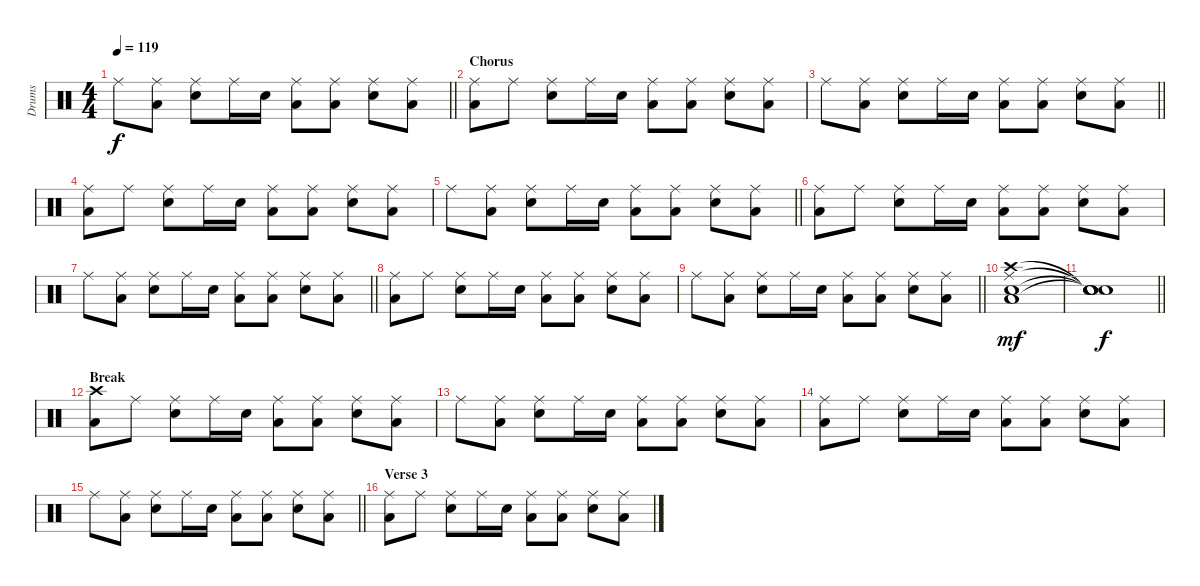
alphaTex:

\track ("Drums" "Drums") {instrument percussion}
\staff {score}
\articulation defaults
\ts (4 4)
\tempo 119
\clef neutral
\barLineRight lightlight
\ks c "Ride (middle)".8{dy f}
("Ride (middle)" "Low Floor Tom (hit)").8 ("Ride (middle)" "Electric Snare (hit)").8 "Ride (middle)".16 "Electric Snare (hit)".16 ("Ride (middle)" "Low Floor Tom (hit)").8 ("Ride (middle)" "Low Floor Tom (hit)").8 ("Ride (middle)" "Electric Snare (hit)").8 ("Ride (middle)" "Low Floor Tom (hit)").8 |
\section ("" "Chorus")
("Ride (middle)" "Low Floor Tom (hit)").8 "Ride (middle)".8 ("Ride (middle)" "Electric Snare (hit)").8 "Ride (middle)".16 "Electric Snare (hit)".16 ("Ride (middle)" "Low Floor Tom (hit)").8 ("Ride (middle)" "Low Floor Tom (hit)").8 ("Ride (middle)" "Electric Snare (hit)").8 ("Ride (middle)" "Low Floor Tom (hit)").8 |
\barLineRight lightlight "Ride (middle)".8
("Ride (middle)" "Low Floor Tom (hit)").8 ("Ride (middle)" "Electric Snare (hit)").8 "Ride (middle)".16 "Electric Snare (hit)".16 ("Ride (middle)" "Low Floor Tom (hit)").8 ("Ride (middle)" "Low Floor Tom (hit)").8 ("Ride (middle)" "Electric Snare (hit)").8 ("Ride (middle)" "Low Floor Tom (hit)").8 |
("Ride (middle)" "Low Floor Tom (hit)").8 "Ride (middle)".8 ("Ride (middle)" "Electric Snare (hit)").8 "Ride (middle)".16 "Electric Snare (hit)".16 ("Ride (middle)" "Low Floor Tom (hit)").8 ("Ride (middle)" "Low Floor Tom (hit)").8 ("Ride (middle)" "Electric Snare (hit)").8 ("Ride (middle)" "Low Floor Tom (hit)").8 |
\barLineRight lightlight "Ride (middle)".8
("Ride (middle)" "Low Floor Tom (hit)").8 ("Ride (middle)" "Electric Snare (hit)").8 "Ride (middle)".16 "Electric Snare (hit)".16 ("Ride (middle)" "Low Floor Tom (hit)").8 ("Ride (middle)" "Low Floor Tom (hit)").8 ("Ride (middle)" "Electric Snare (hit)").8 ("Ride (middle)" "Low Floor Tom (hit)").8 |
("Ride (middle)" "Low Floor Tom (hit)").8 "Ride (middle)".8 ("Ride (middle)" "Electric Snare (hit)").8 "Ride (middle)".16 "Electric Snare (hit)".16 ("Ride (middle)" "Low Floor Tom (hit)").8 ("Ride (middle)" "Low Floor Tom (hit)").8 ("Ride (middle)" "Electric Snare (hit)").8 ("Ride (middle)" "Low Floor Tom (hit)").8 |
\barLineRight lightlight "Ride (middle)".8
("Ride (middle)" "Low Floor Tom (hit)").8 ("Ride (middle)" "Electric Snare (hit)").8 "Ride (middle)".16 "Electric Snare (hit)".16 ("Ride (middle)" "Low Floor Tom (hit)").8 ("Ride (middle)" "Low Floor Tom (hit)").8 ("Ride (middle)" "Electric Snare (hit)").8 ("Ride (middle)" "Low Floor Tom (hit)").8 |
("Ride (middle)" "Low Floor Tom (hit)").8 "Ride (middle)".8 ("Ride (middle)" "Electric Snare (hit)").8 "Ride (middle)".16 "Electric Snare (hit)".16 ("Ride (middle)" "Low Floor Tom (hit)").8 ("Ride (middle)" "Low Floor Tom (hit)").8 ("Ride (middle)" "Electric Snare (hit)").8 ("Ride (middle)" "Low Floor Tom (hit)").8 |
\barLineRight lightlight "Ride (middle)".8
("Ride (middle)" "Low Floor Tom (hit)").8 ("Ride (middle)" "Electric Snare (hit)").8 "Ride (middle)".16 "Electric Snare (hit)".16 ("Ride (middle)" "Low Floor Tom (hit)").8 ("Ride (middle)" "Low Floor Tom (hit)").8 ("Ride (middle)" "Electric Snare (hit)").8 ("Ride (middle)" "Low Floor Tom (hit)").8 |
("Ride (middle)" "Crash high (hit)" "Electric Snare (hit)" "Low Floor Tom (hit)").1{dy mf} |
\barLineRight lightlight
("Snare (hit)"{t} "Snare (hit)"{t} "Snare (hit)"{t} "Snare (hit)"{t}).1{dy f} |
\section ("" "Break")
("Crash high (hit)" "Low Floor Tom (hit)").8 "Ride (middle)".8 ("Ride (middle)" "Electric Snare (hit)").8 "Ride (middle)".16 "Electric Snare (hit)".16 ("Ride (middle)" "Low Floor Tom (hit)").8 ("Ride (middle)" "Low Floor Tom (hit)").8 ("Ride (middle)" "Electric Snare (hit)").8 ("Ride (middle)" "Low Floor Tom (hit)").8 |
"Ride (middle)".8 ("Ride (middle)" "Low Floor Tom (hit)").8 ("Ride (middle)" "Electric Snare (hit)").8 "Ride (middle)".16 "Electric Snare (hit)".16 ("Ride (middle)" "Low Floor Tom (hit)").8 ("Ride (middle)" "Low Floor Tom (hit)").8 ("Ride (middle)" "Electric Snare (hit)").8 ("Ride (middle)" "Low Floor Tom (hit)").8 |
("Ride (middle)" "Low Floor Tom (hit)").8 "Ride (middle)".8 ("Ride (middle)" "Electric Snare (hit)").8 "Ride (middle)".16 "Electric Snare (hit)".16 ("Ride (middle)" "Low Floor Tom (hit)").8 ("Ride (middle)" "Low Floor Tom (hit)").8 ("Ride (middle)" "Electric Snare (hit)").8 ("Ride (middle)" "Low Floor Tom (hit)").8 |
\barLineRight lightlight "Ride (middle)".8
("Ride (middle)" "Low Floor Tom (hit)").8 ("Ride (middle)" "Electric Snare (hit)").8 "Ride (middle)".16 "Electric Snare (hit)".16 ("Ride (middle)" "Low Floor Tom (hit)").8 ("Ride (middle)" "Low Floor Tom (hit)").8 ("Ride (middle)" "Electric Snare (hit)").8 ("Ride (middle)" "Low Floor Tom (hit)").8 |
\section ("" "Verse 3")
("Ride (middle)" "Low Floor Tom (hit)").8 "Ride (middle)".8 ("Ride (middle)" "Electric Snare (hit)").8 "Ride (middle)".16 "Electric Snare (hit)".16 ("Ride (middle)" "Low Floor Tom (hit)").8 ("Ride (middle)" "Low Floor Tom (hit)").8 ("Ride (middle)" "Electric Snare (hit)").8 ("Ride (middle)" "Low Floor Tom (hit)").8
